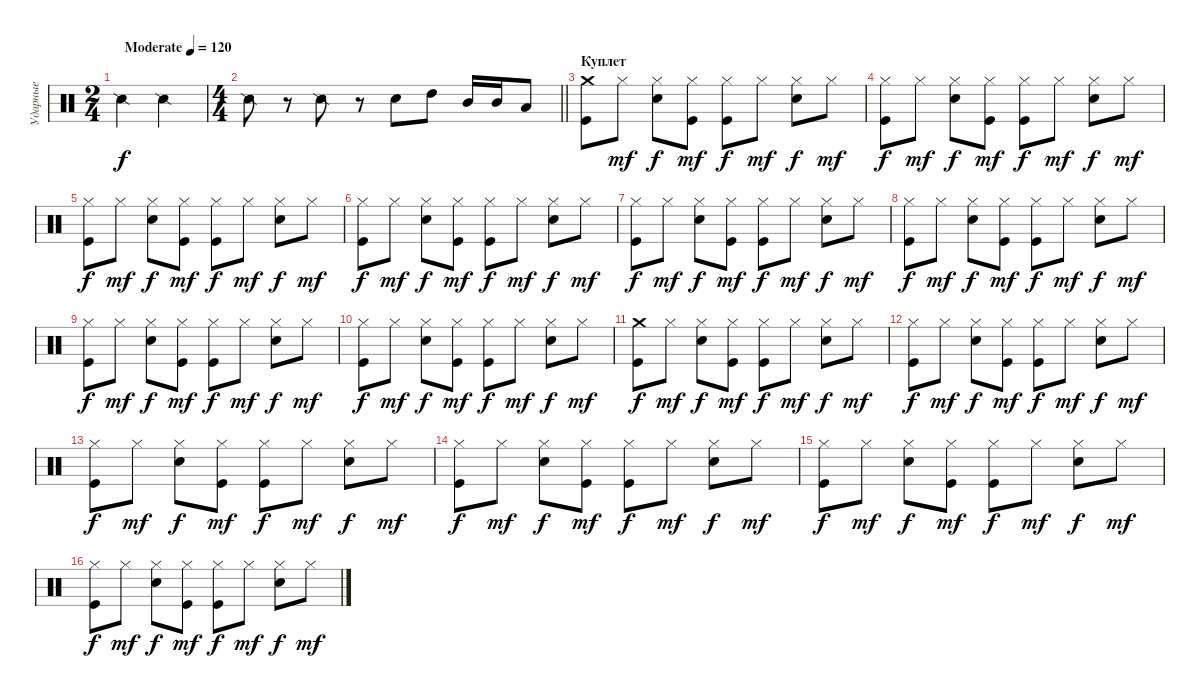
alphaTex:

\track ("Ударные" "Ударные") {instrument percussion}
\staff {score}
\articulation defaults
\ts (2 4)
\tempo (120 "Moderate")
\clef neutral
\ks c "Snare (side stick) 2".4{dy f} "Snare (side stick) 2".4
|
\ts (4 4)
\barLineRight lightlight "Snare (side stick) 2".8
r.8 "Snare (side stick) 2".8 r.8 "Electric Snare (hit)".8 "High Tom (hit)".8 "Mid Tom (hit)".16 "Mid Tom (hit)".16 "Low Tom (hit)".8 |
\section ("" "Куплет")
("Crash medium (hit)" "Kick (hit)").8 "Hi-Hat (closed)".8{dy mf} ("Hi-Hat (closed)" "Electric Snare (hit)").8{dy f} ("Hi-Hat (closed)" "Kick (hit)").8{dy mf} ("Hi-Hat (closed)" "Kick (hit)").8{dy f} "Hi-Hat (closed)".8{dy mf} ("Hi-Hat (closed)" "Electric Snare (hit)").8{dy f} "Hi-Hat (closed)".8{dy mf} |
("Hi-Hat (closed)" "Kick (hit)").8{dy f} "Hi-Hat (closed)".8{dy mf} ("Hi-Hat (closed)" "Electric Snare (hit)").8{dy f} ("Hi-Hat (closed)" "Kick (hit)").8{dy mf} ("Hi-Hat (closed)" "Kick (hit)").8{dy f} "Hi-Hat (closed)".8{dy mf} ("Hi-Hat (closed)" "Electric Snare (hit)").8{dy f} "Hi-Hat (closed)".8{dy mf} |
("Hi-Hat (closed)" "Kick (hit)").8{dy f} "Hi-Hat (closed)".8{dy mf} ("Hi-Hat (closed)" "Electric Snare (hit)").8{dy f} ("Hi-Hat (closed)" "Kick (hit)").8{dy mf} ("Hi-Hat (closed)" "Kick (hit)").8{dy f} "Hi-Hat (closed)".8{dy mf} ("Hi-Hat (closed)" "Electric Snare (hit)").8{dy f} "Hi-Hat (closed)".8{dy mf} |
("Hi-Hat (closed)" "Kick (hit)").8{dy f} "Hi-Hat (closed)".8{dy mf} ("Hi-Hat (closed)" "Electric Snare (hit)").8{dy f} ("Hi-Hat (closed)" "Kick (hit)").8{dy mf} ("Hi-Hat (closed)" "Kick (hit)").8{dy f} "Hi-Hat (closed)".8{dy mf} ("Hi-Hat (closed)" "Electric Snare (hit)").8{dy f} "Hi-Hat (closed)".8{dy mf} |
("Hi-Hat (closed)" "Kick (hit)").8{dy f} "Hi-Hat (closed)".8{dy mf} ("Hi-Hat (closed)" "Electric Snare (hit)").8{dy f} ("Hi-Hat (closed)" "Kick (hit)").8{dy mf} ("Hi-Hat (closed)" "Kick (hit)").8{dy f} "Hi-Hat (closed)".8{dy mf} ("Hi-Hat (closed)" "Electric Snare (hit)").8{dy f} "Hi-Hat (closed)".8{dy mf} |
("Hi-Hat (closed)" "Kick (hit)").8{dy f} "Hi-Hat (closed)".8{dy mf} ("Hi-Hat (closed)" "Electric Snare (hit)").8{dy f} ("Hi-Hat (closed)" "Kick (hit)").8{dy mf} ("Hi-Hat (closed)" "Kick (hit)").8{dy f} "Hi-Hat (closed)".8{dy mf} ("Hi-Hat (closed)" "Electric Snare (hit)").8{dy f} "Hi-Hat (closed)".8{dy mf} |
("Hi-Hat (closed)" "Kick (hit)").8{dy f} "Hi-Hat (closed)".8{dy mf} ("Hi-Hat (closed)" "Electric Snare (hit)").8{dy f} ("Hi-Hat (closed)" "Kick (hit)").8{dy mf} ("Hi-Hat (closed)" "Kick (hit)").8{dy f} "Hi-Hat (closed)".8{dy mf} ("Hi-Hat (closed)" "Electric Snare (hit)").8{dy f} "Hi-Hat (closed)".8{dy mf} |
("Hi-Hat (closed)" "Kick (hit)").8{dy f} "Hi-Hat (closed)".8{dy mf} ("Hi-Hat (closed)" "Electric Snare (hit)").8{dy f} ("Hi-Hat (closed)" "Kick (hit)").8{dy mf} ("Hi-Hat (closed)" "Kick (hit)").8{dy f} "Hi-Hat (closed)".8{dy mf} ("Hi-Hat (closed)" "Electric Snare (hit)").8{dy f} "Hi-Hat (closed)".8{dy mf} |
("Crash medium (hit)" "Kick (hit)").8{dy f} "Hi-Hat (closed)".8{dy mf} ("Hi-Hat (closed)" "Electric Snare (hit)").8{dy f} ("Hi-Hat (closed)" "Kick (hit)").8{dy mf} ("Hi-Hat (closed)" "Kick (hit)").8{dy f} "Hi-Hat (closed)".8{dy mf} ("Hi-Hat (closed)" "Electric Snare (hit)").8{dy f} "Hi-Hat (closed)".8{dy mf} |
("Hi-Hat (closed)" "Kick (hit)").8{dy f} "Hi-Hat (closed)".8{dy mf} ("Hi-Hat (closed)" "Electric Snare (hit)").8{dy f} ("Hi-Hat (closed)" "Kick (hit)").8{dy mf} ("Hi-Hat (closed)" "Kick (hit)").8{dy f} "Hi-Hat (closed)".8{dy mf} ("Hi-Hat (closed)" "Electric Snare (hit)").8{dy f} "Hi-Hat (closed)".8{dy mf} |
("Hi-Hat (closed)" "Kick (hit)").8{dy f} "Hi-Hat (closed)".8{dy mf} ("Hi-Hat (closed)" "Electric Snare (hit)").8{dy f} ("Hi-Hat (closed)" "Kick (hit)").8{dy mf} ("Hi-Hat (closed)" "Kick (hit)").8{dy f} "Hi-Hat (closed)".8{dy mf} ("Hi-Hat (closed)" "Electric Snare (hit)").8{dy f} "Hi-Hat (closed)".8{dy mf} |
("Hi-Hat (closed)" "Kick (hit)").8{dy f} "Hi-Hat (closed)".8{dy mf} ("Hi-Hat (closed)" "Electric Snare (hit)").8{dy f} ("Hi-Hat (closed)" "Kick (hit)").8{dy mf} ("Hi-Hat (closed)" "Kick (hit)").8{dy f} "Hi-Hat (closed)".8{dy mf} ("Hi-Hat (closed)" "Electric Snare (hit)").8{dy f} "Hi-Hat (closed)".8{dy mf} |
("Hi-Hat (closed)" "Kick (hit)").8{dy f} "Hi-Hat (closed)".8{dy mf} ("Hi-Hat (closed)" "Electric Snare (hit)").8{dy f} ("Hi-Hat (closed)" "Kick (hit)").8{dy mf} ("Hi-Hat (closed)" "Kick (hit)").8{dy f} "Hi-Hat (closed)".8{dy mf} ("Hi-Hat (closed)" "Electric Snare (hit)").8{dy f} "Hi-Hat (closed)".8{dy mf} |
("Hi-Hat (closed)" "Kick (hit)").8{dy f} "Hi-Hat (closed)".8{dy mf} ("Hi-Hat (closed)" "Electric Snare (hit)").8{dy f} ("Hi-Hat (closed)" "Kick (hit)").8{dy mf} ("Hi-Hat (closed)" "Kick (hit)").8{dy f} "Hi-Hat (closed)".8{dy mf} ("Hi-Hat (closed)" "Electric Snare (hit)").8{dy f} "Hi-Hat (closed)".8{dy mf}
